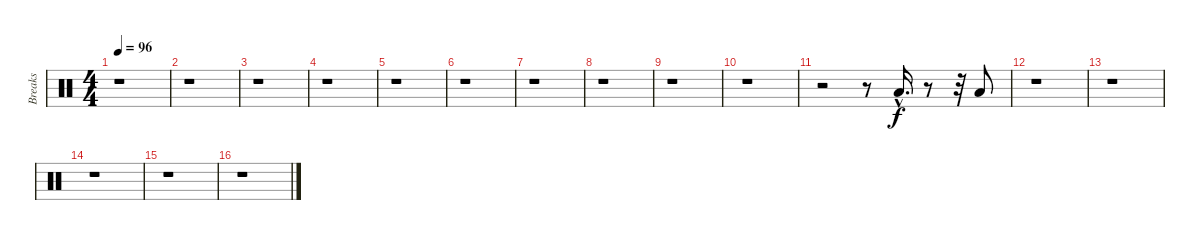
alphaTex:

\track ("Breaks" "Breaks") {instrument percussion}
\staff {score}
\articulation defaults
\ts (4 4)
\tempo 96
\clef neutral
\ks c
r.1{dy f} |
r.1 |
r.1 |
r.1 |
r.1 |
r.1 |
r.1 |
r.1 |
r.1 |
r.1 |
r.2 r.8 "Low Tom (hit)"{hac}.16{d} r.8 r.32 "Low Floor Tom (hit)".8 |
r.1 |
r.1 |
r.1 |
r.1 |
r.1
